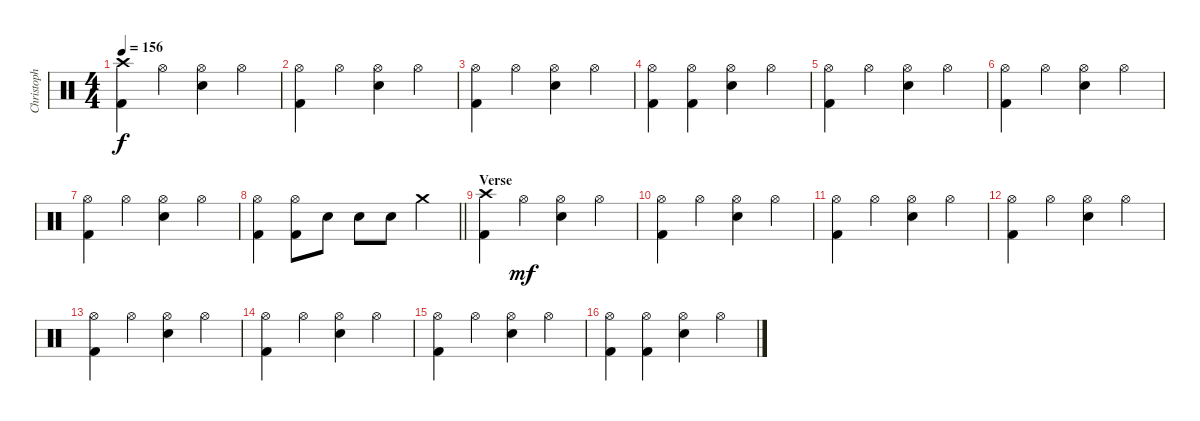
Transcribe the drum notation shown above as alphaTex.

\track ("Christoph Schneider" "Christoph ") {instrument percussion}
\staff {score}
\articulation defaults
\ts (4 4)
\tempo 156
\clef neutral
\ks c
("Crash high (hit)" "Kick (hit) 2").4{dy f} "Hi-Hat (open)".4 ("Hi-Hat (open)" "Snare (hit) 2").4 "Hi-Hat (open)".4 |
("Hi-Hat (open)" "Kick (hit) 2").4 "Hi-Hat (open)".4 ("Hi-Hat (open)" "Snare (hit) 2").4 "Hi-Hat (open)".4 |
("Hi-Hat (open)" "Kick (hit) 2").4 "Hi-Hat (open)".4 ("Hi-Hat (open)" "Snare (hit) 2").4 "Hi-Hat (open)".4 |
("Hi-Hat (open)" "Kick (hit) 2").4 ("Hi-Hat (open)" "Kick (hit) 2").4 ("Hi-Hat (open)" "Snare (hit) 2").4 "Hi-Hat (open)".4 |
("Hi-Hat (open)" "Kick (hit) 2").4 "Hi-Hat (open)".4 ("Hi-Hat (open)" "Snare (hit) 2").4 "Hi-Hat (open)".4 |
("Hi-Hat (open)" "Kick (hit) 2").4 "Hi-Hat (open)".4 ("Hi-Hat (open)" "Snare (hit) 2").4 "Hi-Hat (open)".4 |
("Hi-Hat (open)" "Kick (hit) 2").4 "Hi-Hat (open)".4 ("Hi-Hat (open)" "Snare (hit) 2").4 "Hi-Hat (open)".4 |
\barLineRight lightlight
("Hi-Hat (open)" "Kick (hit) 2").4 ("Hi-Hat (open)" "Kick (hit) 2").8 "Snare (hit) 2".8 "Snare (hit) 2".8 "Snare (hit) 2".8 "Crash medium (hit)".4 |
\section ("" "Verse")
("Crash high (hit)" "Kick (hit) 2").4 "Hi-Hat (open)".4{dy mf} ("Hi-Hat (open)" "Snare (hit) 2").4 "Hi-Hat (open)".4 |
("Hi-Hat (open)" "Kick (hit) 2").4 "Hi-Hat (open)".4 ("Hi-Hat (open)" "Snare (hit) 2").4 "Hi-Hat (open)".4 |
("Hi-Hat (open)" "Kick (hit) 2").4 "Hi-Hat (open)".4 ("Hi-Hat (open)" "Snare (hit) 2").4 "Hi-Hat (open)".4 |
("Hi-Hat (open)" "Kick (hit) 2").4 "Hi-Hat (open)".4 ("Hi-Hat (open)" "Snare (hit) 2").4 "Hi-Hat (open)".4 |
("Hi-Hat (open)" "Kick (hit) 2").4 "Hi-Hat (open)".4 ("Hi-Hat (open)" "Snare (hit) 2").4 "Hi-Hat (open)".4 |
("Hi-Hat (open)" "Kick (hit) 2").4 "Hi-Hat (open)".4 ("Hi-Hat (open)" "Snare (hit) 2").4 "Hi-Hat (open)".4 |
("Hi-Hat (open)" "Kick (hit) 2").4 "Hi-Hat (open)".4 ("Hi-Hat (open)" "Snare (hit) 2").4 "Hi-Hat (open)".4 |
("Hi-Hat (open)" "Kick (hit) 2").4 ("Hi-Hat (open)" "Kick (hit) 2").4 ("Hi-Hat (open)" "Snare (hit) 2").4 "Hi-Hat (open)".4
